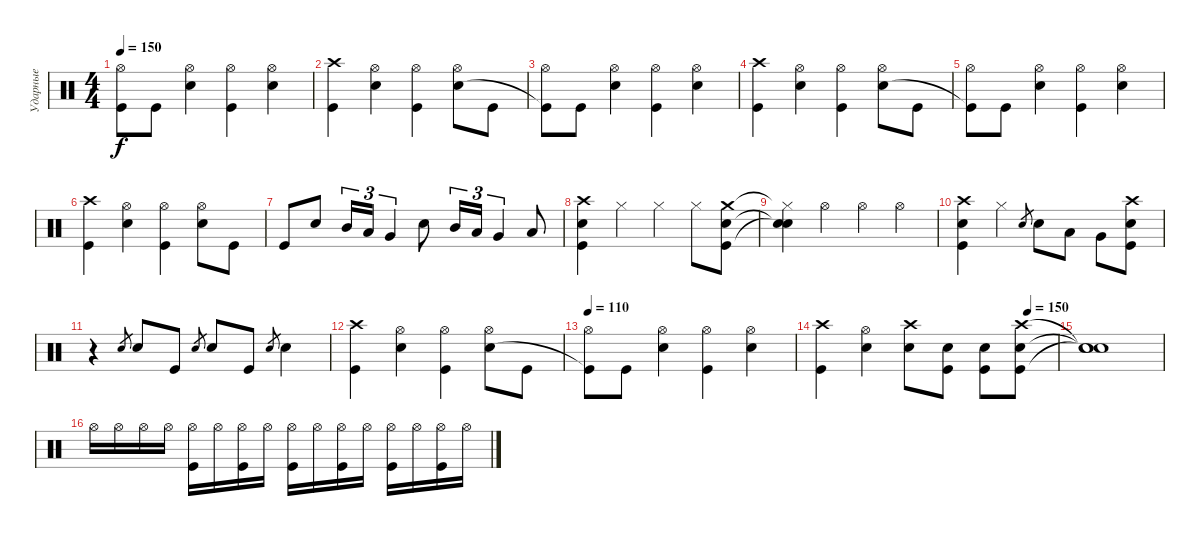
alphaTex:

\track ("Ударные" "Ударные") {instrument percussion}
\staff {score}
\articulation defaults
\ts (4 4)
\tempo 150
\clef neutral
\ks c
("Hi-Hat (open)" "Kick (hit)"{t}).8{dy f} "Kick (hit)".8 ("Hi-Hat (open)" "Snare (hit) 2").4 ("Hi-Hat (open)" "Kick (hit)").4 ("Hi-Hat (open)" "Snare (hit) 2").4 |
("Crash high (hit)" "Kick (hit)").4 ("Hi-Hat (open)" "Snare (hit) 2").4 ("Hi-Hat (open)" "Kick (hit)").4 ("Hi-Hat (open)" "Snare (hit) 2").8 "Kick (hit)".8 |
("Hi-Hat (open)" "Kick (hit)"{t}).8 "Kick (hit)".8 ("Hi-Hat (open)" "Snare (hit) 2").4 ("Hi-Hat (open)" "Kick (hit)").4 ("Hi-Hat (open)" "Snare (hit) 2").4 |
("Crash high (hit)" "Kick (hit)").4 ("Hi-Hat (open)" "Snare (hit) 2").4 ("Hi-Hat (open)" "Kick (hit)").4 ("Hi-Hat (open)" "Snare (hit) 2").8 "Kick (hit)".8 |
("Hi-Hat (open)" "Kick (hit)"{t}).8 "Kick (hit)".8 ("Hi-Hat (open)" "Snare (hit) 2").4 ("Hi-Hat (open)" "Kick (hit)").4 ("Hi-Hat (open)" "Snare (hit) 2").4 |
("Crash high (hit)" "Kick (hit)").4 ("Hi-Hat (open)" "Snare (hit) 2").4 ("Hi-Hat (open)" "Kick (hit)").4 ("Hi-Hat (open)" "Snare (hit) 2").8 "Kick (hit)".8 |
"Kick (hit)".8 "Snare (hit) 2".8 "Mid Tom (hit)".16{tu (3 2)} "Low Tom (hit)".16{tu (3 2)} "Very Low Tom (hit)".4{tu (3 2)} "Snare (hit) 2".8 "Mid Tom (hit)".16{tu (3 2)} "Low Tom (hit)".16{tu (3 2)} "Very Low Tom (hit)".4{tu (3 2)} "Low Floor Tom (hit)".8 |
("Crash high (hit)" "Kick (hit)" "Snare (hit) 2").4 "Hi-Hat (closed)".4 "Hi-Hat (closed)".4 "Hi-Hat (closed)".8 ("Crash medium (hit)" "Snare (hit) 2" "Kick (hit)").8 |
("Hi-Hat (closed)"{t} "Snare (hit)"{t} "Snare (hit)"{t}).4 "Hi-Hat (open)".4 "Hi-Hat (open)".4 "Hi-Hat (open)".4 |
("Crash high (hit)" "Snare (hit) 2" "Kick (hit)").4 "Hi-Hat (closed)".4 "Snare (hit) 2".8{gr} "Snare (hit) 2".8 "Low Tom (hit)".8 "Very Low Tom (hit)".8 ("Crash high (hit)" "Snare (hit) 2" "Kick (hit)").8 |
r.4 "Snare (hit) 2".8{gr} "Snare (hit) 2".8 "Kick (hit)".8 "Snare (hit) 2".8{gr} "Snare (hit) 2".8 "Kick (hit)".8 "Snare (hit) 2".8{gr} "Snare (hit) 2".4 |
("Crash high (hit)" "Kick (hit)").4 ("Hi-Hat (open)" "Snare (hit) 2").4 ("Hi-Hat (open)" "Kick (hit)").4 ("Hi-Hat (open)" "Snare (hit) 2").8 "Kick (hit)".8 |
\tempo 110
("Hi-Hat (open)" "Kick (hit)"{t}).8 "Kick (hit)".8 ("Hi-Hat (open)" "Snare (hit) 2").4 ("Hi-Hat (open)" "Kick (hit)").4 ("Hi-Hat (open)" "Snare (hit) 2").4 |
\tempo (150 0.875)
("Crash high (hit)" "Kick (hit)").4 ("Hi-Hat (open)" "Snare (hit) 2").4 ("Crash high (hit)" "Snare (hit) 2").8 ("Snare (hit) 2" "Kick (hit)").8 ("Snare (hit) 2" "Kick (hit)").8 ("Crash high (hit)" "Snare (hit) 2" "Kick (hit)").8 |
("Snare (hit)"{t} "Snare (hit)"{t} "Snare (hit)"{t}).1 |
"Hi-Hat (open)".16{volume 9} "Hi-Hat (open)".16{volume 15} "Hi-Hat (open)".16 "Hi-Hat (open)".16 ("Hi-Hat (open)" "Kick (hit)").16 "Hi-Hat (open)".16 ("Hi-Hat (open)" "Kick (hit)").16 "Hi-Hat (open)".16 ("Hi-Hat (open)" "Kick (hit)").16 "Hi-Hat (open)".16 ("Hi-Hat (open)" "Kick (hit)").16 "Hi-Hat (open)".16 ("Hi-Hat (open)" "Kick (hit)").16 "Hi-Hat (open)".16 ("Hi-Hat (open)" "Kick (hit)").16 "Hi-Hat (open)".16
